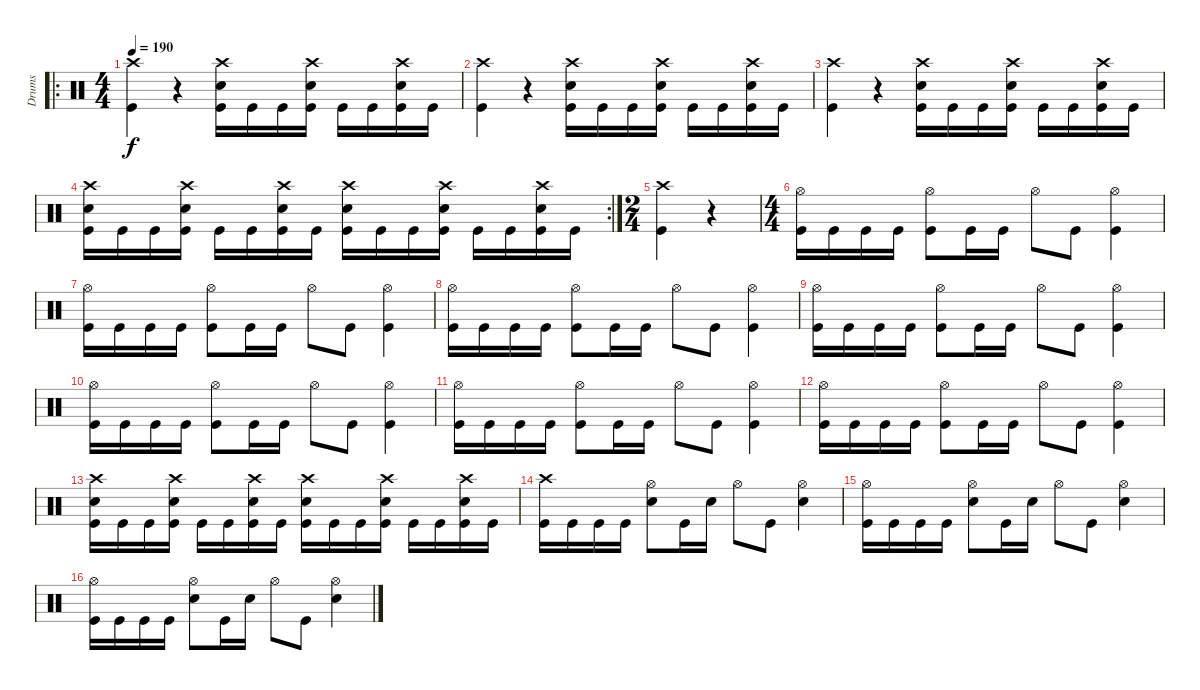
\track ("Drums" "Drums") {instrument percussion}
\staff {score}
\articulation defaults
\ro
\ts (4 4)
\tempo 190
\clef neutral
\ks c
("Crash high (hit)" "Kick (hit)").4{dy f} r.4{volume 6} ("Crash high (hit)" "Electric Snare (hit)" "Kick (hit)").16{volume 13} "Kick (hit)".16 "Kick (hit)".16 ("Crash high (hit)" "Electric Snare (hit)" "Kick (hit)").16 "Kick (hit)".16 "Kick (hit)".16 ("Crash high (hit)" "Electric Snare (hit)" "Kick (hit)").16 "Kick (hit)".16 |
("Crash high (hit)" "Kick (hit)").4 r.4{volume 6} ("Crash high (hit)" "Electric Snare (hit)" "Kick (hit)").16{volume 13} "Kick (hit)".16 "Kick (hit)".16 ("Crash high (hit)" "Electric Snare (hit)" "Kick (hit)").16 "Kick (hit)".16 "Kick (hit)".16 ("Crash high (hit)" "Electric Snare (hit)" "Kick (hit)").16 "Kick (hit)".16 |
("Crash high (hit)" "Kick (hit)").4 r.4{volume 6} ("Crash high (hit)" "Electric Snare (hit)" "Kick (hit)").16{volume 13} "Kick (hit)".16 "Kick (hit)".16 ("Crash high (hit)" "Electric Snare (hit)" "Kick (hit)").16 "Kick (hit)".16 "Kick (hit)".16 ("Crash high (hit)" "Electric Snare (hit)" "Kick (hit)").16 "Kick (hit)".16 |
\rc 2
("Crash high (hit)" "Electric Snare (hit)" "Kick (hit)").16 "Kick (hit)".16 "Kick (hit)".16 ("Crash high (hit)" "Electric Snare (hit)" "Kick (hit)").16 "Kick (hit)".16 "Kick (hit)".16 ("Crash high (hit)" "Electric Snare (hit)" "Kick (hit)").16 "Kick (hit)".16 ("Crash high (hit)" "Electric Snare (hit)" "Kick (hit)").16 "Kick (hit)".16 "Kick (hit)".16 ("Crash high (hit)" "Electric Snare (hit)" "Kick (hit)").16 "Kick (hit)".16 "Kick (hit)".16 ("Crash high (hit)" "Electric Snare (hit)" "Kick (hit)").16 "Kick (hit)".16 |
\ts (2 4)
("Crash high (hit)" "Kick (hit)").4 r.4{volume 6} |
\ts (4 4)
("Hi-Hat (open)" "Kick (hit)").16{volume 13} "Kick (hit)".16 "Kick (hit)".16 "Kick (hit)".16 ("Hi-Hat (open)" "Kick (hit)").8 "Kick (hit)".16 "Kick (hit)".16 "Hi-Hat (open)".8 "Kick (hit)".8 ("Hi-Hat (open)" "Kick (hit)").4 |
("Hi-Hat (open)" "Kick (hit)").16 "Kick (hit)".16 "Kick (hit)".16 "Kick (hit)".16 ("Hi-Hat (open)" "Kick (hit)").8 "Kick (hit)".16 "Kick (hit)".16 "Hi-Hat (open)".8 "Kick (hit)".8 ("Hi-Hat (open)" "Kick (hit)").4 |
("Hi-Hat (open)" "Kick (hit)").16 "Kick (hit)".16 "Kick (hit)".16 "Kick (hit)".16 ("Hi-Hat (open)" "Kick (hit)").8 "Kick (hit)".16 "Kick (hit)".16 "Hi-Hat (open)".8 "Kick (hit)".8 ("Hi-Hat (open)" "Kick (hit)").4 |
("Hi-Hat (open)" "Kick (hit)").16 "Kick (hit)".16 "Kick (hit)".16 "Kick (hit)".16 ("Hi-Hat (open)" "Kick (hit)").8 "Kick (hit)".16 "Kick (hit)".16 "Hi-Hat (open)".8 "Kick (hit)".8 ("Hi-Hat (open)" "Kick (hit)").4 |
("Hi-Hat (open)" "Kick (hit)").16 "Kick (hit)".16 "Kick (hit)".16 "Kick (hit)".16 ("Hi-Hat (open)" "Kick (hit)").8 "Kick (hit)".16 "Kick (hit)".16 "Hi-Hat (open)".8 "Kick (hit)".8 ("Hi-Hat (open)" "Kick (hit)").4 |
("Hi-Hat (open)" "Kick (hit)").16 "Kick (hit)".16 "Kick (hit)".16 "Kick (hit)".16 ("Hi-Hat (open)" "Kick (hit)").8 "Kick (hit)".16 "Kick (hit)".16 "Hi-Hat (open)".8 "Kick (hit)".8 ("Hi-Hat (open)" "Kick (hit)").4 |
("Hi-Hat (open)" "Kick (hit)").16 "Kick (hit)".16 "Kick (hit)".16 "Kick (hit)".16 ("Hi-Hat (open)" "Kick (hit)").8 "Kick (hit)".16 "Kick (hit)".16 "Hi-Hat (open)".8 "Kick (hit)".8 ("Hi-Hat (open)" "Kick (hit)").4 |
("Crash high (hit)" "Electric Snare (hit)" "Kick (hit)").16 "Kick (hit)".16 "Kick (hit)".16 ("Crash high (hit)" "Electric Snare (hit)" "Kick (hit)").16 "Kick (hit)".16 "Kick (hit)".16 ("Crash high (hit)" "Electric Snare (hit)" "Kick (hit)").16 "Kick (hit)".16 ("Crash high (hit)" "Electric Snare (hit)" "Kick (hit)").16 "Kick (hit)".16 "Kick (hit)".16 ("Crash high (hit)" "Electric Snare (hit)" "Kick (hit)").16 "Kick (hit)".16 "Kick (hit)".16 ("Crash high (hit)" "Electric Snare (hit)" "Kick (hit)").16 "Kick (hit)".16 |
("Crash high (hit)" "Kick (hit)").16 "Kick (hit)".16 "Kick (hit)".16 "Kick (hit)".16 ("Hi-Hat (open)" "Electric Snare (hit)").8 "Kick (hit)".16 "Electric Snare (hit)".16 "Hi-Hat (open)".8 "Kick (hit)".8 ("Hi-Hat (open)" "Electric Snare (hit)").4 |
("Hi-Hat (open)" "Kick (hit)").16 "Kick (hit)".16 "Kick (hit)".16 "Kick (hit)".16 ("Hi-Hat (open)" "Electric Snare (hit)").8 "Kick (hit)".16 "Electric Snare (hit)".16 "Hi-Hat (open)".8 "Kick (hit)".8 ("Hi-Hat (open)" "Electric Snare (hit)").4 |
("Hi-Hat (open)" "Kick (hit)").16 "Kick (hit)".16 "Kick (hit)".16 "Kick (hit)".16 ("Hi-Hat (open)" "Electric Snare (hit)").8 "Kick (hit)".16 "Electric Snare (hit)".16 "Hi-Hat (open)".8 "Kick (hit)".8 ("Hi-Hat (open)" "Electric Snare (hit)").4
